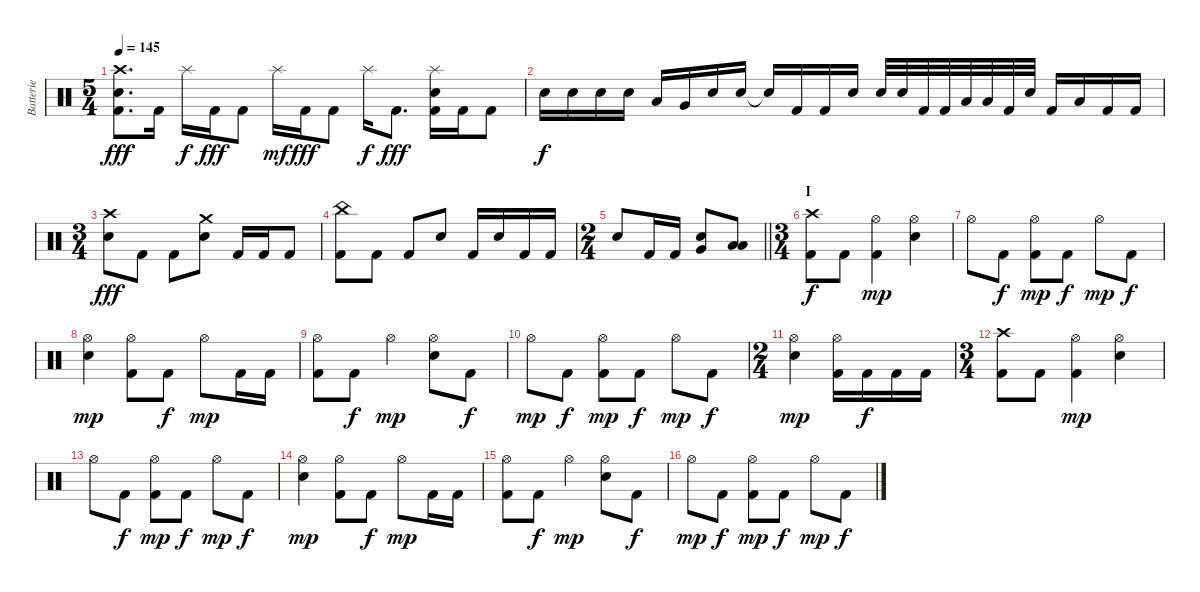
\track ("Batterie" "Batterie") {instrument percussion}
\staff {score}
\articulation defaults
\ts (5 4)
\tempo 145
\clef neutral
\ks c
("Crash high (hit)" "Electric Snare (hit)" "Kick (hit) 2").8{d dy fff} "Kick (hit) 2".16 "Splash (hit)".16{dy f} "Kick (hit) 2".16{dy fff} "Kick (hit) 2".8 "Splash (hit)".16{dy mf} "Kick (hit) 2".16{dy fff} "Kick (hit) 2".8 "Splash (hit)".16{dy f} "Kick (hit) 2".8{d dy fff} ("Splash (hit)" "Electric Snare (hit)" "Kick (hit) 2").16 "Kick (hit) 2".16 "Kick (hit) 2".8 |
"Electric Snare (hit)".16{dy f} "Electric Snare (hit)".16 "Electric Snare (hit)".16 "Electric Snare (hit)".16 "Low Tom (hit)".16 "Very Low Tom (hit)".16 "Electric Snare (hit)".16 "Electric Snare (hit)".16 "Snare (hit)"{t}.16 "Kick (hit) 2".16 "Kick (hit) 2".16 "Electric Snare (hit)".16 "Electric Snare (hit)".32 "Electric Snare (hit)".32 "Kick (hit) 2".32 "Kick (hit) 2".32 "Low Tom (hit)".32 "Low Tom (hit)".32 "Kick (hit) 2".32 "Electric Snare (hit)".32 "Kick (hit) 2".16 "Low Tom (hit)".16 "Kick (hit) 2".16 "Kick (hit) 2".16 |
\ts (3 4)
("Crash high (hit)" "Electric Snare (hit)").8{dy fff} "Kick (hit) 2".8 "Kick (hit) 2".8 ("Crash medium (hit)" "Electric Snare (hit)").8 "Kick (hit) 2".16 "Kick (hit) 2".16 "Kick (hit) 2".8 |
("China (hit)" "Kick (hit) 2").8 "Kick (hit) 2".8 "Kick (hit) 2".8 "Electric Snare (hit)".8 "Kick (hit) 2".16 "Electric Snare (hit)".16 "Kick (hit) 2".16 "Kick (hit) 2".16 |
\ts (2 4)
\barLineRight lightlight "Electric Snare (hit)".8 "Kick (hit) 2".16 "Kick (hit) 2".16
("Electric Snare (hit)" "Very Low Tom (hit)").8 ("Low Tom (hit)" "Low Floor Tom (hit)").8 |
\ts (3 4)
\section ("" "I")
("Crash high (hit)" "Kick (hit) 2").8{dy f} "Kick (hit) 2".8 ("Hi-Hat (open)" "Kick (hit) 2").4{dy mp} ("Hi-Hat (open)" "Electric Snare (hit)").4 |
"Hi-Hat (open)".8 "Kick (hit) 2".8{dy f} ("Hi-Hat (open)" "Kick (hit) 2").8{dy mp} "Kick (hit) 2".8{dy f} "Hi-Hat (open)".8{dy mp} "Kick (hit) 2".8{dy f} |
("Hi-Hat (open)" "Electric Snare (hit)").4{dy mp} ("Hi-Hat (open)" "Kick (hit) 2").8 "Kick (hit) 2".8{dy f} "Hi-Hat (open)".8{dy mp} "Kick (hit) 2".16 "Kick (hit) 2".16 |
("Hi-Hat (open)" "Kick (hit) 2").8 "Kick (hit) 2".8{dy f} "Hi-Hat (open)".4{dy mp} ("Hi-Hat (open)" "Electric Snare (hit)").8 "Kick (hit) 2".8{dy f} |
"Hi-Hat (open)".8{dy mp} "Kick (hit) 2".8{dy f} ("Hi-Hat (open)" "Kick (hit) 2").8{dy mp} "Kick (hit) 2".8{dy f} "Hi-Hat (open)".8{dy mp} "Kick (hit) 2".8{dy f} |
\ts (2 4)
("Hi-Hat (open)" "Electric Snare (hit)").4{dy mp} ("Hi-Hat (open)" "Kick (hit) 2").16 "Kick (hit) 2".16{dy f} "Kick (hit) 2".16 "Kick (hit) 2".16 |
\ts (3 4)
("Crash high (hit)" "Kick (hit) 2").8 "Kick (hit) 2".8 ("Hi-Hat (open)" "Kick (hit) 2").4{dy mp} ("Hi-Hat (open)" "Electric Snare (hit)").4 |
"Hi-Hat (open)".8 "Kick (hit) 2".8{dy f} ("Hi-Hat (open)" "Kick (hit) 2").8{dy mp} "Kick (hit) 2".8{dy f} "Hi-Hat (open)".8{dy mp} "Kick (hit) 2".8{dy f} |
("Hi-Hat (open)" "Electric Snare (hit)").4{dy mp} ("Hi-Hat (open)" "Kick (hit) 2").8 "Kick (hit) 2".8{dy f} "Hi-Hat (open)".8{dy mp} "Kick (hit) 2".16 "Kick (hit) 2".16 |
("Hi-Hat (open)" "Kick (hit) 2").8 "Kick (hit) 2".8{dy f} "Hi-Hat (open)".4{dy mp} ("Hi-Hat (open)" "Electric Snare (hit)").8 "Kick (hit) 2".8{dy f} |
"Hi-Hat (open)".8{dy mp} "Kick (hit) 2".8{dy f} ("Hi-Hat (open)" "Kick (hit) 2").8{dy mp} "Kick (hit) 2".8{dy f} "Hi-Hat (open)".8{dy mp} "Kick (hit) 2".8{dy f}
